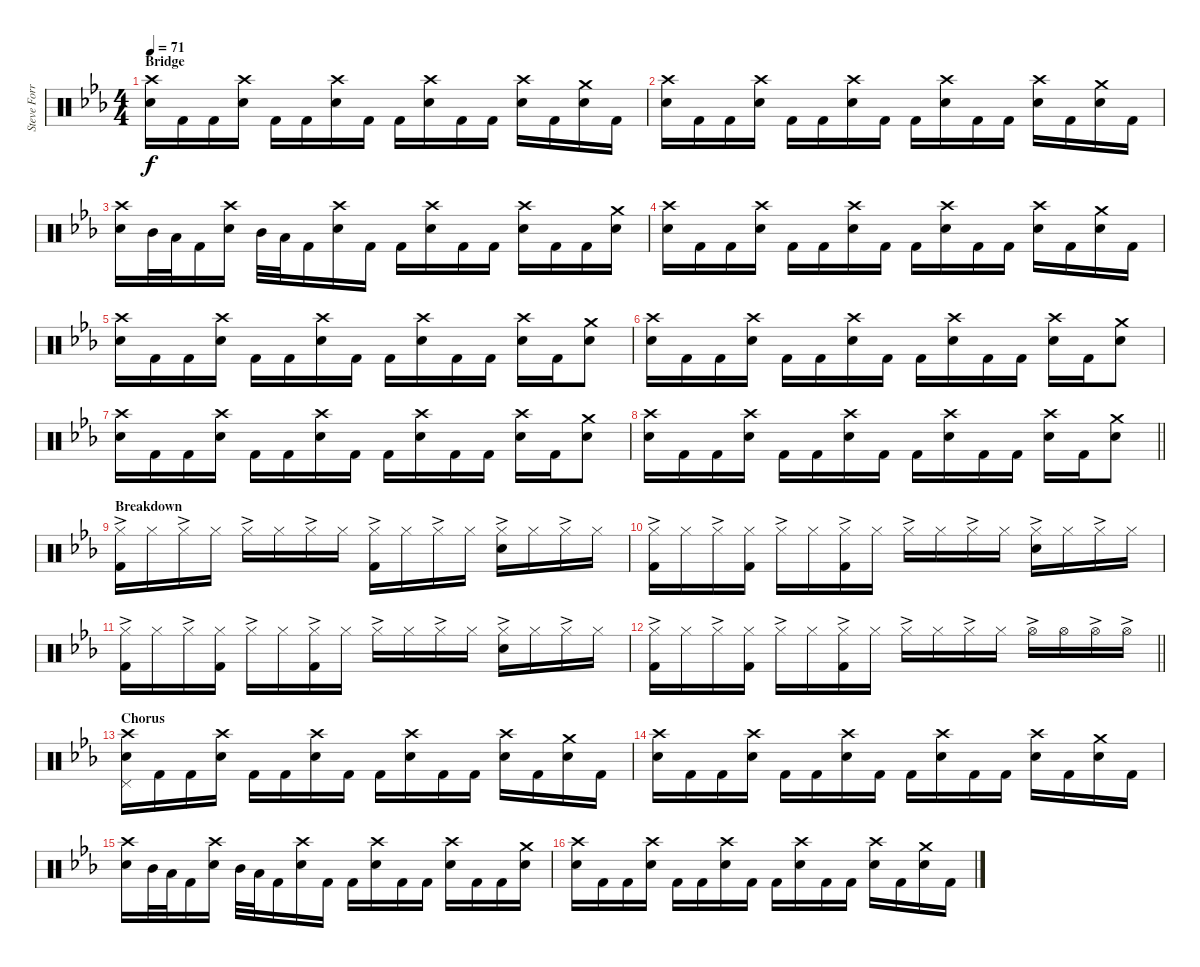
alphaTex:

\track ("Steve Forrest [Drums]" "Steve Forr") {instrument percussion}
\staff {score}
\articulation defaults
\ts (4 4)
\section ("" "Bridge")
\tempo 71
\clef neutral
\ks cminor
("Crash high (hit)" "Electric Snare (hit)").16{dy f} "Kick (hit) 2".16 "Kick (hit) 2".16 ("Crash high (hit)" "Electric Snare (hit)").16 "Kick (hit) 2".16 "Kick (hit) 2".16 ("Crash high (hit)" "Electric Snare (hit)").16 "Kick (hit) 2".16 "Kick (hit) 2".16 ("Crash high (hit)" "Electric Snare (hit)").16 "Kick (hit) 2".16 "Kick (hit) 2".16 ("Crash high (hit)" "Electric Snare (hit)").16 "Kick (hit) 2".16 ("Crash medium (hit)" "Electric Snare (hit)").16 "Kick (hit) 2".16 |
("Crash high (hit)" "Electric Snare (hit)").16 "Kick (hit) 2".16 "Kick (hit) 2".16 ("Crash high (hit)" "Electric Snare (hit)").16 "Kick (hit) 2".16 "Kick (hit) 2".16 ("Crash high (hit)" "Electric Snare (hit)").16 "Kick (hit) 2".16 "Kick (hit) 2".16 ("Crash high (hit)" "Electric Snare (hit)").16 "Kick (hit) 2".16 "Kick (hit) 2".16 ("Crash high (hit)" "Electric Snare (hit)").16 "Kick (hit) 2".16 ("Crash medium (hit)" "Electric Snare (hit)").16 "Kick (hit) 2".16 |
("Crash high (hit)" "Electric Snare (hit)").16 "Mid Tom (hit)".32 "Low Tom (hit)".32 "Kick (hit) 2".16 ("Crash high (hit)" "Electric Snare (hit)").16 "Mid Tom (hit)".32 "Low Tom (hit)".32 "Kick (hit) 2".16 ("Crash high (hit)" "Electric Snare (hit)").16 "Kick (hit) 2".16 "Kick (hit) 2".16 ("Crash high (hit)" "Electric Snare (hit)").16 "Kick (hit) 2".16 "Kick (hit) 2".16 ("Crash high (hit)" "Electric Snare (hit)").16 "Kick (hit) 2".16 "Kick (hit) 2".16 ("Crash medium (hit)" "Electric Snare (hit)").16 |
("Crash high (hit)" "Electric Snare (hit)").16 "Kick (hit) 2".16 "Kick (hit) 2".16 ("Crash high (hit)" "Electric Snare (hit)").16 "Kick (hit) 2".16 "Kick (hit) 2".16 ("Crash high (hit)" "Electric Snare (hit)").16 "Kick (hit) 2".16 "Kick (hit) 2".16 ("Crash high (hit)" "Electric Snare (hit)").16 "Kick (hit) 2".16 "Kick (hit) 2".16 ("Crash high (hit)" "Electric Snare (hit)").16 "Kick (hit) 2".16 ("Crash medium (hit)" "Electric Snare (hit)").16 "Kick (hit) 2".16 |
("Crash high (hit)" "Electric Snare (hit)").16 "Kick (hit) 2".16 "Kick (hit) 2".16 ("Crash high (hit)" "Electric Snare (hit)").16 "Kick (hit) 2".16 "Kick (hit) 2".16 ("Crash high (hit)" "Electric Snare (hit)").16 "Kick (hit) 2".16 "Kick (hit) 2".16 ("Crash high (hit)" "Electric Snare (hit)").16 "Kick (hit) 2".16 "Kick (hit) 2".16 ("Crash high (hit)" "Electric Snare (hit)").16 "Kick (hit) 2".16 ("Crash medium (hit)" "Electric Snare (hit)").8 |
("Crash high (hit)" "Electric Snare (hit)").16 "Kick (hit) 2".16 "Kick (hit) 2".16 ("Crash high (hit)" "Electric Snare (hit)").16 "Kick (hit) 2".16 "Kick (hit) 2".16 ("Crash high (hit)" "Electric Snare (hit)").16 "Kick (hit) 2".16 "Kick (hit) 2".16 ("Crash high (hit)" "Electric Snare (hit)").16 "Kick (hit) 2".16 "Kick (hit) 2".16 ("Crash high (hit)" "Electric Snare (hit)").16 "Kick (hit) 2".16 ("Crash medium (hit)" "Electric Snare (hit)").8 |
("Crash high (hit)" "Electric Snare (hit)").16 "Kick (hit) 2".16 "Kick (hit) 2".16 ("Crash high (hit)" "Electric Snare (hit)").16 "Kick (hit) 2".16 "Kick (hit) 2".16 ("Crash high (hit)" "Electric Snare (hit)").16 "Kick (hit) 2".16 "Kick (hit) 2".16 ("Crash high (hit)" "Electric Snare (hit)").16 "Kick (hit) 2".16 "Kick (hit) 2".16 ("Crash high (hit)" "Electric Snare (hit)").16 "Kick (hit) 2".16 ("Crash medium (hit)" "Electric Snare (hit)").8 |
\barLineRight lightlight
("Crash high (hit)" "Electric Snare (hit)").16 "Kick (hit) 2".16 "Kick (hit) 2".16 ("Crash high (hit)" "Electric Snare (hit)").16 "Kick (hit) 2".16 "Kick (hit) 2".16 ("Crash high (hit)" "Electric Snare (hit)").16 "Kick (hit) 2".16 "Kick (hit) 2".16 ("Crash high (hit)" "Electric Snare (hit)").16 "Kick (hit) 2".16 "Kick (hit) 2".16 ("Crash high (hit)" "Electric Snare (hit)").16 "Kick (hit) 2".16 ("Crash medium (hit)" "Electric Snare (hit)").8 |
\section ("" "Breakdown")
("Hi-Hat (closed)"{ac} "Kick (hit) 2").16 "Hi-Hat (closed)".16 "Hi-Hat (closed)"{ac}.16 "Hi-Hat (closed)".16 "Hi-Hat (closed)"{ac}.16 "Hi-Hat (closed)".16 "Hi-Hat (closed)"{ac}.16 "Hi-Hat (closed)".16 ("Hi-Hat (closed)"{ac} "Kick (hit) 2").16 "Hi-Hat (closed)".16 "Hi-Hat (closed)"{ac}.16 "Hi-Hat (closed)".16 ("Hi-Hat (closed)"{ac} "Electric Snare (hit)").16 "Hi-Hat (closed)".16 "Hi-Hat (closed)"{ac}.16 "Hi-Hat (closed)".16 |
("Hi-Hat (closed)"{ac} "Kick (hit) 2").16 "Hi-Hat (closed)".16 "Hi-Hat (closed)"{ac}.16 ("Hi-Hat (closed)" "Kick (hit) 2").16 "Hi-Hat (closed)"{ac}.16 "Hi-Hat (closed)".16 ("Hi-Hat (closed)"{ac} "Kick (hit) 2").16 "Hi-Hat (closed)".16 "Hi-Hat (closed)"{ac}.16 "Hi-Hat (closed)".16 "Hi-Hat (closed)"{ac}.16 "Hi-Hat (closed)".16 ("Hi-Hat (closed)"{ac} "Electric Snare (hit)").16 "Hi-Hat (closed)".16 "Hi-Hat (closed)"{ac}.16 "Hi-Hat (closed)".16 |
("Hi-Hat (closed)"{ac} "Kick (hit) 2").16 "Hi-Hat (closed)".16 "Hi-Hat (closed)"{ac}.16 ("Hi-Hat (closed)" "Kick (hit) 2").16 "Hi-Hat (closed)"{ac}.16 "Hi-Hat (closed)".16 ("Hi-Hat (closed)"{ac} "Kick (hit) 2").16 "Hi-Hat (closed)".16 "Hi-Hat (closed)"{ac}.16 "Hi-Hat (closed)".16 "Hi-Hat (closed)"{ac}.16 "Hi-Hat (closed)".16 ("Hi-Hat (closed)"{ac} "Electric Snare (hit)").16 "Hi-Hat (closed)".16 "Hi-Hat (closed)"{ac}.16 "Hi-Hat (closed)".16 |
\barLineRight lightlight
("Hi-Hat (closed)"{ac} "Kick (hit) 2").16 "Hi-Hat (closed)".16 "Hi-Hat (closed)"{ac}.16 ("Hi-Hat (closed)" "Kick (hit) 2").16 "Hi-Hat (closed)"{ac}.16 "Hi-Hat (closed)".16 ("Hi-Hat (closed)"{ac} "Kick (hit) 2").16 "Hi-Hat (closed)".16 "Hi-Hat (closed)"{ac}.16 "Hi-Hat (closed)".16 "Hi-Hat (closed)"{ac}.16 "Hi-Hat (closed)".16 "Hi-Hat (open)"{ac}.16 "Hi-Hat (open)".16 "Hi-Hat (open)"{ac}.16 "Hi-Hat (open)"{ac}.16 |
\section ("" "Chorus")
("Pedal Hi-Hat (hit)" "Crash high (hit)" "Electric Snare (hit)").16 "Kick (hit) 2".16 "Kick (hit) 2".16 ("Crash high (hit)" "Electric Snare (hit)").16 "Kick (hit) 2".16 "Kick (hit) 2".16 ("Crash high (hit)" "Electric Snare (hit)").16 "Kick (hit) 2".16 "Kick (hit) 2".16 ("Crash high (hit)" "Electric Snare (hit)").16 "Kick (hit) 2".16 "Kick (hit) 2".16 ("Crash high (hit)" "Electric Snare (hit)").16 "Kick (hit) 2".16 ("Crash medium (hit)" "Electric Snare (hit)").16 "Kick (hit) 2".16 |
("Crash high (hit)" "Electric Snare (hit)").16 "Kick (hit) 2".16 "Kick (hit) 2".16 ("Crash high (hit)" "Electric Snare (hit)").16 "Kick (hit) 2".16 "Kick (hit) 2".16 ("Crash high (hit)" "Electric Snare (hit)").16 "Kick (hit) 2".16 "Kick (hit) 2".16 ("Crash high (hit)" "Electric Snare (hit)").16 "Kick (hit) 2".16 "Kick (hit) 2".16 ("Crash high (hit)" "Electric Snare (hit)").16 "Kick (hit) 2".16 ("Crash medium (hit)" "Electric Snare (hit)").16 "Kick (hit) 2".16 |
("Crash high (hit)" "Electric Snare (hit)").16 "Mid Tom (hit)".32 "Low Tom (hit)".32 "Kick (hit) 2".16 ("Crash high (hit)" "Electric Snare (hit)").16 "Mid Tom (hit)".32 "Low Tom (hit)".32 "Kick (hit) 2".16 ("Crash high (hit)" "Electric Snare (hit)").16 "Kick (hit) 2".16 "Kick (hit) 2".16 ("Crash high (hit)" "Electric Snare (hit)").16 "Kick (hit) 2".16 "Kick (hit) 2".16 ("Crash high (hit)" "Electric Snare (hit)").16 "Kick (hit) 2".16 "Kick (hit) 2".16 ("Crash medium (hit)" "Electric Snare (hit)").16 |
("Crash high (hit)" "Electric Snare (hit)").16 "Kick (hit) 2".16 "Kick (hit) 2".16 ("Crash high (hit)" "Electric Snare (hit)").16 "Kick (hit) 2".16 "Kick (hit) 2".16 ("Crash high (hit)" "Electric Snare (hit)").16 "Kick (hit) 2".16 "Kick (hit) 2".16 ("Crash high (hit)" "Electric Snare (hit)").16 "Kick (hit) 2".16 "Kick (hit) 2".16 ("Crash high (hit)" "Electric Snare (hit)").16 "Kick (hit) 2".16 ("Crash medium (hit)" "Electric Snare (hit)").16 "Kick (hit) 2".16
